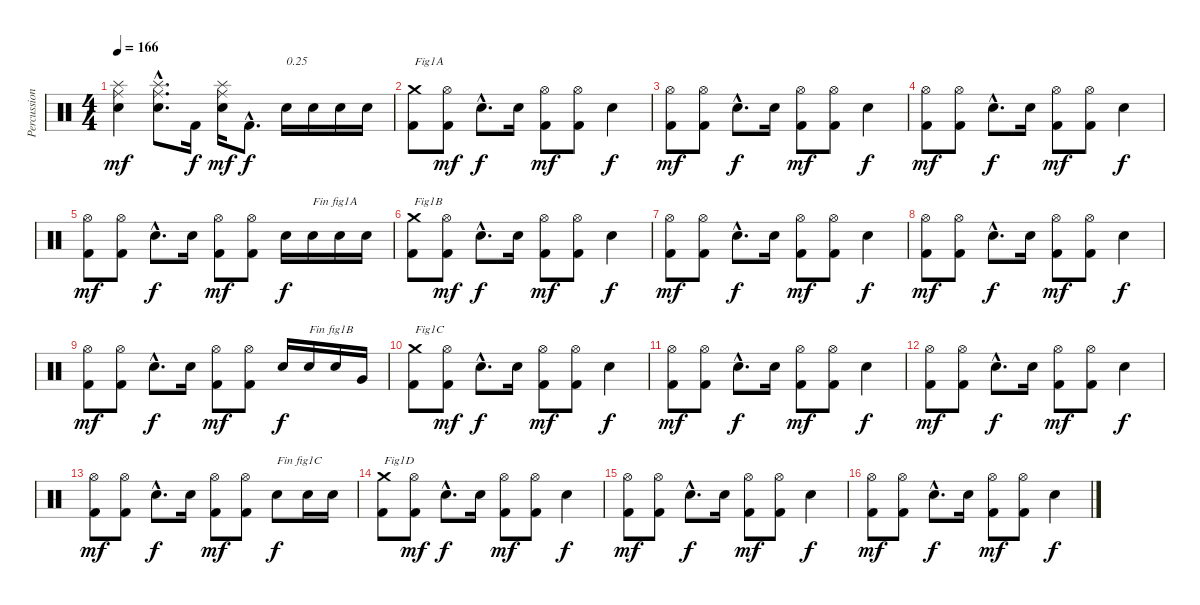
\track ("Percussions" "Percussion") {instrument percussion}
\staff {score}
\articulation defaults
\ts (4 4)
\tempo 166
\clef neutral
\ks c
("Electric Snare (hit)" "Splash (hit)" "Ride (middle)").4{dy mf} ("Electric Snare (hit)"{hac} "Splash (hit)"{hac} "Ride (middle)"{hac}).8{d} "Kick (hit) 2".16{dy f} ("Electric Snare (hit)" "Splash (hit)" "Ride (middle)").16{dy mf} "Kick (hit) 2"{hac}.8{d dy f} "Electric Snare (hit)".16{txt "0.25"} "Electric Snare (hit)".16 "Electric Snare (hit)".16 "Electric Snare (hit)".16 |
("Kick (hit) 2" "Crash medium (hit)").8{txt "Fig1A"} ("Kick (hit) 2" "Hi-Hat (open)").8{dy mf} "Electric Snare (hit)"{hac}.8{d dy f} "Electric Snare (hit)".16 ("Kick (hit) 2" "Hi-Hat (open)").8{dy mf} ("Kick (hit) 2" "Hi-Hat (open)").8 "Electric Snare (hit)".4{dy f} |
("Kick (hit) 2" "Hi-Hat (open)").8{dy mf} ("Kick (hit) 2" "Hi-Hat (open)").8 "Electric Snare (hit)"{hac}.8{d dy f} "Electric Snare (hit)".16 ("Kick (hit) 2" "Hi-Hat (open)").8{dy mf} ("Kick (hit) 2" "Hi-Hat (open)").8 "Electric Snare (hit)".4{dy f} |
("Kick (hit) 2" "Hi-Hat (open)").8{dy mf} ("Kick (hit) 2" "Hi-Hat (open)").8 "Electric Snare (hit)"{hac}.8{d dy f} "Electric Snare (hit)".16 ("Kick (hit) 2" "Hi-Hat (open)").8{dy mf} ("Kick (hit) 2" "Hi-Hat (open)").8 "Electric Snare (hit)".4{dy f} |
("Kick (hit) 2" "Hi-Hat (open)").8{dy mf} ("Kick (hit) 2" "Hi-Hat (open)").8 "Electric Snare (hit)"{hac}.8{d dy f} "Electric Snare (hit)".16 ("Kick (hit) 2" "Hi-Hat (open)").8{dy mf} ("Kick (hit) 2" "Hi-Hat (open)").8 "Electric Snare (hit)".16{dy f} "Electric Snare (hit)".16{txt "Fin fig1A"} "Electric Snare (hit)".16 "Electric Snare (hit)".16 |
("Kick (hit) 2" "Crash medium (hit)").8{txt "Fig1B"} ("Kick (hit) 2" "Hi-Hat (open)").8{dy mf} "Electric Snare (hit)"{hac}.8{d dy f} "Electric Snare (hit)".16 ("Kick (hit) 2" "Hi-Hat (open)").8{dy mf} ("Kick (hit) 2" "Hi-Hat (open)").8 "Electric Snare (hit)".4{dy f} |
("Kick (hit) 2" "Hi-Hat (open)").8{dy mf} ("Kick (hit) 2" "Hi-Hat (open)").8 "Electric Snare (hit)"{hac}.8{d dy f} "Electric Snare (hit)".16 ("Kick (hit) 2" "Hi-Hat (open)").8{dy mf} ("Kick (hit) 2" "Hi-Hat (open)").8 "Electric Snare (hit)".4{dy f} |
("Kick (hit) 2" "Hi-Hat (open)").8{dy mf} ("Kick (hit) 2" "Hi-Hat (open)").8 "Electric Snare (hit)"{hac}.8{d dy f} "Electric Snare (hit)".16 ("Kick (hit) 2" "Hi-Hat (open)").8{dy mf} ("Kick (hit) 2" "Hi-Hat (open)").8 "Electric Snare (hit)".4{dy f} |
("Kick (hit) 2" "Hi-Hat (open)").8{dy mf} ("Kick (hit) 2" "Hi-Hat (open)").8 "Electric Snare (hit)"{hac}.8{d dy f} "Electric Snare (hit)".16 ("Kick (hit) 2" "Hi-Hat (open)").8{dy mf} ("Kick (hit) 2" "Hi-Hat (open)").8 "Electric Snare (hit)".16{dy f} "Electric Snare (hit)".16{txt "Fin fig1B"} "Electric Snare (hit)".16 "Very Low Tom (hit)".16 |
("Kick (hit) 2" "Crash medium (hit)").8{txt "Fig1C"} ("Kick (hit) 2" "Hi-Hat (open)").8{dy mf} "Electric Snare (hit)"{hac}.8{d dy f} "Electric Snare (hit)".16 ("Kick (hit) 2" "Hi-Hat (open)").8{dy mf} ("Kick (hit) 2" "Hi-Hat (open)").8 "Electric Snare (hit)".4{dy f} |
("Kick (hit) 2" "Hi-Hat (open)").8{dy mf} ("Kick (hit) 2" "Hi-Hat (open)").8 "Electric Snare (hit)"{hac}.8{d dy f} "Electric Snare (hit)".16 ("Kick (hit) 2" "Hi-Hat (open)").8{dy mf} ("Kick (hit) 2" "Hi-Hat (open)").8 "Electric Snare (hit)".4{dy f} |
("Kick (hit) 2" "Hi-Hat (open)").8{dy mf} ("Kick (hit) 2" "Hi-Hat (open)").8 "Electric Snare (hit)"{hac}.8{d dy f} "Electric Snare (hit)".16 ("Kick (hit) 2" "Hi-Hat (open)").8{dy mf} ("Kick (hit) 2" "Hi-Hat (open)").8 "Electric Snare (hit)".4{dy f} |
("Kick (hit) 2" "Hi-Hat (open)").8{dy mf} ("Kick (hit) 2" "Hi-Hat (open)").8 "Electric Snare (hit)"{hac}.8{d dy f} "Electric Snare (hit)".16 ("Kick (hit) 2" "Hi-Hat (open)").8{dy mf} ("Kick (hit) 2" "Hi-Hat (open)").8 "Electric Snare (hit)".8{txt "Fin fig1C" dy f} "Electric Snare (hit)".16 "Electric Snare (hit)".16 |
("Kick (hit) 2" "Crash medium (hit)").8{txt "Fig1D"} ("Kick (hit) 2" "Hi-Hat (open)").8{dy mf} "Electric Snare (hit)"{hac}.8{d dy f} "Electric Snare (hit)".16 ("Kick (hit) 2" "Hi-Hat (open)").8{dy mf} ("Kick (hit) 2" "Hi-Hat (open)").8 "Electric Snare (hit)".4{dy f} |
("Kick (hit) 2" "Hi-Hat (open)").8{dy mf} ("Kick (hit) 2" "Hi-Hat (open)").8 "Electric Snare (hit)"{hac}.8{d dy f} "Electric Snare (hit)".16 ("Kick (hit) 2" "Hi-Hat (open)").8{dy mf} ("Kick (hit) 2" "Hi-Hat (open)").8 "Electric Snare (hit)".4{dy f} |
("Kick (hit) 2" "Hi-Hat (open)").8{dy mf} ("Kick (hit) 2" "Hi-Hat (open)").8 "Electric Snare (hit)"{hac}.8{d dy f} "Electric Snare (hit)".16 ("Kick (hit) 2" "Hi-Hat (open)").8{dy mf} ("Kick (hit) 2" "Hi-Hat (open)").8 "Electric Snare (hit)".4{dy f}
